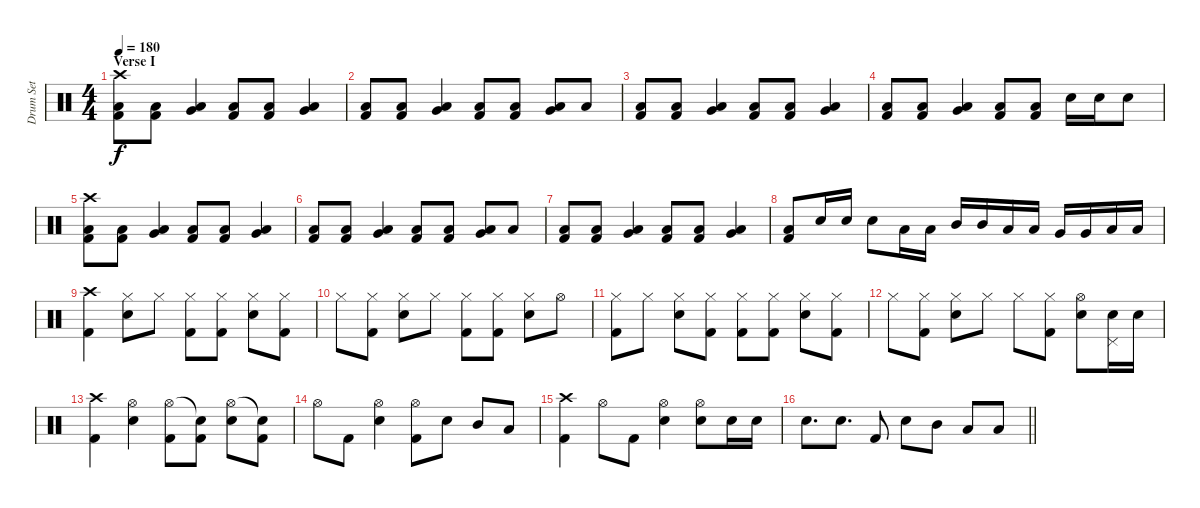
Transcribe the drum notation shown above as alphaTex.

\track ("Drum Set" "Drum Set") {instrument percussion}
\staff {score}
\articulation defaults
\ts (4 4)
\section ("" "Verse I")
\tempo 180
\clef neutral
\ks c
("Crash high (hit)" "Kick (hit) 2" "Low Tom (hit)").8{dy f} ("Kick (hit) 2" "Low Tom (hit)").8 ("Very Low Tom (hit)" "Low Floor Tom (hit)").4 ("Low Tom (hit)" "Kick (hit) 2").8 ("Low Tom (hit)" "Kick (hit) 2").8 ("Very Low Tom (hit)" "Low Floor Tom (hit)").4 |
("Low Tom (hit)" "Kick (hit) 2").8 ("Low Tom (hit)" "Kick (hit) 2").8 ("Very Low Tom (hit)" "Low Floor Tom (hit)").4 ("Low Tom (hit)" "Kick (hit) 2").8 ("Low Tom (hit)" "Kick (hit) 2").8 ("Very Low Tom (hit)" "Low Floor Tom (hit)").8 "Low Floor Tom (hit)".8 |
("Low Tom (hit)" "Kick (hit) 2").8 ("Low Tom (hit)" "Kick (hit) 2").8 ("Very Low Tom (hit)" "Low Floor Tom (hit)").4 ("Low Tom (hit)" "Kick (hit) 2").8 ("Low Tom (hit)" "Kick (hit) 2").8 ("Very Low Tom (hit)" "Low Floor Tom (hit)").4 |
("Low Tom (hit)" "Kick (hit) 2").8 ("Low Tom (hit)" "Kick (hit) 2").8 ("Very Low Tom (hit)" "Low Floor Tom (hit)").4 ("Low Tom (hit)" "Kick (hit) 2").8 ("Low Tom (hit)" "Kick (hit) 2").8 "Electric Snare (hit)".16 "Electric Snare (hit)".16 "Electric Snare (hit)".8 |
("Crash high (hit)" "Low Tom (hit)" "Kick (hit) 2").8 ("Low Tom (hit)" "Kick (hit) 2").8 ("Very Low Tom (hit)" "Low Floor Tom (hit)").4 ("Low Tom (hit)" "Kick (hit) 2").8 ("Low Tom (hit)" "Kick (hit) 2").8 ("Very Low Tom (hit)" "Low Floor Tom (hit)").4 |
("Low Tom (hit)" "Kick (hit) 2").8 ("Low Tom (hit)" "Kick (hit) 2").8 ("Very Low Tom (hit)" "Low Floor Tom (hit)").4 ("Low Tom (hit)" "Kick (hit) 2").8 ("Low Tom (hit)" "Kick (hit) 2").8 ("Very Low Tom (hit)" "Low Floor Tom (hit)").8 "Low Floor Tom (hit)".8 |
("Low Tom (hit)" "Kick (hit) 2").8 ("Low Tom (hit)" "Kick (hit) 2").8 ("Very Low Tom (hit)" "Low Floor Tom (hit)").4 ("Low Tom (hit)" "Kick (hit) 2").8 ("Low Tom (hit)" "Kick (hit) 2").8 ("Very Low Tom (hit)" "Low Floor Tom (hit)").4 |
("Low Tom (hit)" "Kick (hit) 2").8 "Electric Snare (hit)".16 "Electric Snare (hit)".16 "Electric Snare (hit)".8 "Low Tom (hit)".16 "Low Tom (hit)".16 "Mid Tom (hit)".16 "Mid Tom (hit)".16 "Low Tom (hit)".16 "Low Tom (hit)".16 "Very Low Tom (hit)".16 "Very Low Tom (hit)".16 "Low Floor Tom (hit)".16 "Low Floor Tom (hit)".16 |
("Crash high (hit)" "Kick (hit) 2").4 ("Hi-Hat (closed)" "Electric Snare (hit)").8 "Hi-Hat (closed)".8 ("Hi-Hat (closed)" "Kick (hit) 2").8 ("Hi-Hat (closed)" "Kick (hit) 2").8 ("Hi-Hat (closed)" "Electric Snare (hit)").8 ("Hi-Hat (closed)" "Kick (hit) 2").8 |
"Hi-Hat (closed)".8 ("Hi-Hat (closed)" "Kick (hit) 2").8 ("Hi-Hat (closed)" "Electric Snare (hit)").8 "Hi-Hat (closed)".8 ("Hi-Hat (closed)" "Kick (hit) 2").8 ("Hi-Hat (closed)" "Kick (hit) 2").8 ("Hi-Hat (closed)" "Electric Snare (hit)").8 "Hi-Hat (open)".8 |
("Hi-Hat (closed)" "Kick (hit) 2").8 "Hi-Hat (closed)".8 ("Hi-Hat (closed)" "Electric Snare (hit)").8 ("Hi-Hat (closed)" "Kick (hit) 2").8 ("Hi-Hat (closed)" "Kick (hit) 2").8 ("Hi-Hat (closed)" "Kick (hit) 2").8 ("Hi-Hat (closed)" "Electric Snare (hit)").8 ("Hi-Hat (closed)" "Kick (hit) 2").8 |
"Hi-Hat (closed)".8 ("Hi-Hat (closed)" "Kick (hit) 2").8 ("Hi-Hat (closed)" "Electric Snare (hit)").8 "Hi-Hat (closed)".8 "Hi-Hat (closed)".8 ("Hi-Hat (closed)" "Kick (hit) 2").8 ("Hi-Hat (open)" "Electric Snare (hit)").8 ("Electric Snare (hit)" "Pedal Hi-Hat (hit)").16 "Electric Snare (hit)".16 |
("Crash high (hit)" "Kick (hit) 2").4 ("Hi-Hat (open)" "Electric Snare (hit)").4 ("Hi-Hat (open)" "Kick (hit) 2").8 ("Snare (hit)"{t} "Kick (hit) 2").8 ("Hi-Hat (open)" "Electric Snare (hit)").8 ("Snare (hit)"{t} "Kick (hit) 2").8 |
"Hi-Hat (open)".8 "Kick (hit) 2".8 ("Hi-Hat (open)" "Electric Snare (hit)").4 ("Hi-Hat (open)" "Kick (hit) 2").8 "Electric Snare (hit)".8 "Mid Tom (hit)".8 "Low Tom (hit)".8 |
("Crash high (hit)" "Kick (hit) 2").4 "Hi-Hat (open)".8 "Kick (hit) 2".8 ("Hi-Hat (open)" "Electric Snare (hit)").4 ("Hi-Hat (open)" "Electric Snare (hit)").8 "Electric Snare (hit)".16 "Electric Snare (hit)".16 |
\barLineRight lightlight "Electric Snare (hit)".8{d} "Electric Snare (hit)".8{d} "Kick (hit) 2".8 "Electric Snare (hit)".8 "Mid Tom (hit)".8 "Low Tom (hit)".8 "Low Floor Tom (hit)".8
